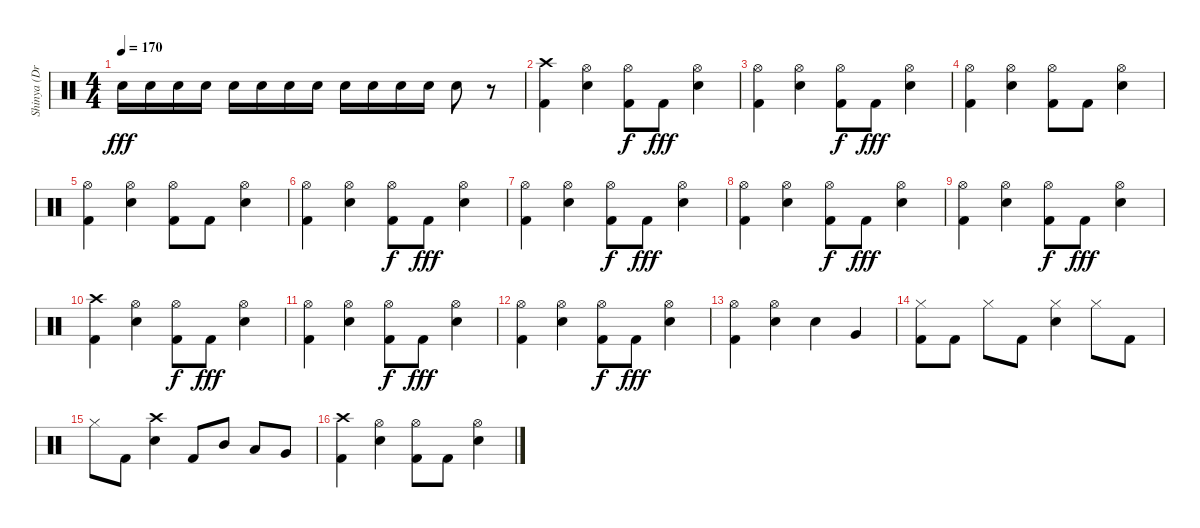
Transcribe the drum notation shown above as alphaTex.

\track ("Shinya (Drums)" "Shinya (Dr") {instrument percussion}
\staff {score}
\articulation defaults
\ts (4 4)
\tempo 170
\clef neutral
\ks c "Electric Snare (hit)".16{dy fff} "Electric Snare (hit)".16 "Electric Snare (hit)".16 "Electric Snare (hit)".16 "Electric Snare (hit)".16 "Electric Snare (hit)".16 "Electric Snare (hit)".16 "Electric Snare (hit)".16 "Electric Snare (hit)".16 "Electric Snare (hit)".16 "Electric Snare (hit)".16 "Electric Snare (hit)".16 "Electric Snare (hit)".8
r.8 |
("Crash high (hit)" "Kick (hit) 2").4 ("Hi-Hat (open)" "Electric Snare (hit)").4 ("Hi-Hat (open)" "Kick (hit) 2").8{dy f} "Kick (hit) 2".8{dy fff} ("Hi-Hat (open)" "Electric Snare (hit)").4 |
("Hi-Hat (open)" "Kick (hit) 2").4 ("Hi-Hat (open)" "Electric Snare (hit)").4 ("Hi-Hat (open)" "Kick (hit) 2").8{dy f} "Kick (hit) 2".8{dy fff} ("Hi-Hat (open)" "Electric Snare (hit)").4 |
("Hi-Hat (open)" "Kick (hit) 2").4 ("Hi-Hat (open)" "Electric Snare (hit)").4 ("Hi-Hat (open)" "Kick (hit) 2").8 "Kick (hit) 2".8 ("Hi-Hat (open)" "Electric Snare (hit)").4 |
("Hi-Hat (open)" "Kick (hit) 2").4 ("Hi-Hat (open)" "Electric Snare (hit)").4 ("Hi-Hat (open)" "Kick (hit) 2").8 "Kick (hit) 2".8 ("Hi-Hat (open)" "Electric Snare (hit)").4 |
("Hi-Hat (open)" "Kick (hit) 2").4 ("Hi-Hat (open)" "Electric Snare (hit)").4 ("Hi-Hat (open)" "Kick (hit) 2").8{dy f} "Kick (hit) 2".8{dy fff} ("Hi-Hat (open)" "Electric Snare (hit)").4 |
("Hi-Hat (open)" "Kick (hit) 2").4 ("Hi-Hat (open)" "Electric Snare (hit)").4 ("Hi-Hat (open)" "Kick (hit) 2").8{dy f} "Kick (hit) 2".8{dy fff} ("Hi-Hat (open)" "Electric Snare (hit)").4 |
("Hi-Hat (open)" "Kick (hit) 2").4 ("Hi-Hat (open)" "Electric Snare (hit)").4 ("Hi-Hat (open)" "Kick (hit) 2").8{dy f} "Kick (hit) 2".8{dy fff} ("Hi-Hat (open)" "Electric Snare (hit)").4 |
("Hi-Hat (open)" "Kick (hit) 2").4 ("Hi-Hat (open)" "Electric Snare (hit)").4 ("Hi-Hat (open)" "Kick (hit) 2").8{dy f} "Kick (hit) 2".8{dy fff} ("Hi-Hat (open)" "Electric Snare (hit)").4 |
("Crash high (hit)" "Kick (hit) 2").4 ("Hi-Hat (open)" "Electric Snare (hit)").4 ("Hi-Hat (open)" "Kick (hit) 2").8{dy f} "Kick (hit) 2".8{dy fff} ("Hi-Hat (open)" "Electric Snare (hit)").4 |
("Hi-Hat (open)" "Kick (hit) 2").4 ("Hi-Hat (open)" "Electric Snare (hit)").4 ("Hi-Hat (open)" "Kick (hit) 2").8{dy f} "Kick (hit) 2".8{dy fff} ("Hi-Hat (open)" "Electric Snare (hit)").4 |
("Hi-Hat (open)" "Kick (hit) 2").4 ("Hi-Hat (open)" "Electric Snare (hit)").4 ("Hi-Hat (open)" "Kick (hit) 2").8{dy f} "Kick (hit) 2".8{dy fff} ("Hi-Hat (open)" "Electric Snare (hit)").4 |
("Hi-Hat (open)" "Kick (hit) 2").4 ("Hi-Hat (open)" "Electric Snare (hit)").4 "Electric Snare (hit)".4 "Very Low Tom (hit)".4 |
("Hi-Hat (closed)" "Kick (hit) 2").8 "Kick (hit) 2".8 "Hi-Hat (closed)".8 "Kick (hit) 2".8 ("Hi-Hat (closed)" "Electric Snare (hit)").4 "Hi-Hat (closed)".8 "Kick (hit) 2".8 |
"Hi-Hat (closed)".8 "Kick (hit) 2".8 ("Crash high (hit)" "Electric Snare (hit)").4 "Kick (hit) 2".8 "Mid Tom (hit)".8 "Low Tom (hit)".8 "Very Low Tom (hit)".8 |
("Crash high (hit)" "Kick (hit) 2").4 ("Hi-Hat (open)" "Electric Snare (hit)").4 ("Hi-Hat (open)" "Kick (hit) 2").8 "Kick (hit) 2".8 ("Hi-Hat (open)" "Electric Snare (hit)").4
